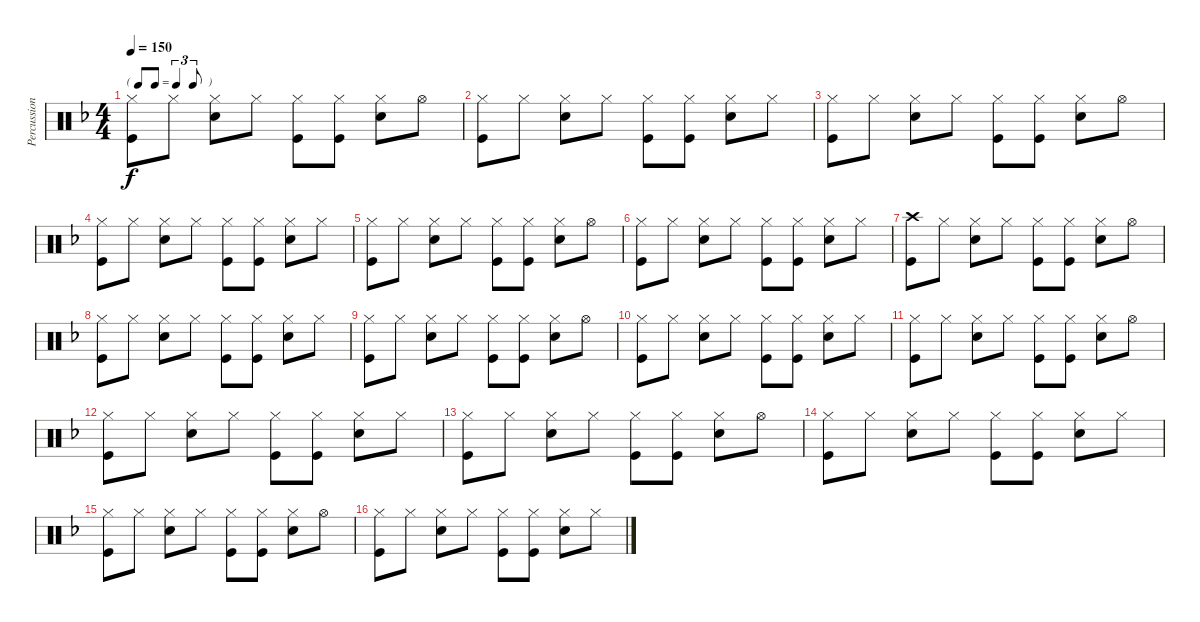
\track ("Percussion" "Percussion") {instrument percussion}
\staff {score}
\articulation defaults
\ts (4 4)
\tf triplet8th
\tempo 150
\clef neutral
\ks f
("Hi-Hat (closed)" "Kick (hit)").8{dy f} "Hi-Hat (closed)".8 ("Hi-Hat (closed)" "Snare (hit) 2").8 "Hi-Hat (closed)".8 ("Hi-Hat (closed)" "Kick (hit)").8 ("Hi-Hat (closed)" "Kick (hit)").8 ("Hi-Hat (closed)" "Snare (hit) 2").8 "Hi-Hat (open)".8 |
("Hi-Hat (closed)" "Kick (hit)").8 "Hi-Hat (closed)".8 ("Hi-Hat (closed)" "Snare (hit) 2").8 "Hi-Hat (closed)".8 ("Hi-Hat (closed)" "Kick (hit)").8 ("Hi-Hat (closed)" "Kick (hit)").8 ("Hi-Hat (closed)" "Snare (hit) 2").8 "Hi-Hat (closed)".8 |
("Hi-Hat (closed)" "Kick (hit)").8 "Hi-Hat (closed)".8 ("Hi-Hat (closed)" "Snare (hit) 2").8 "Hi-Hat (closed)".8 ("Hi-Hat (closed)" "Kick (hit)").8 ("Hi-Hat (closed)" "Kick (hit)").8 ("Hi-Hat (closed)" "Snare (hit) 2").8 "Hi-Hat (open)".8 |
("Hi-Hat (closed)" "Kick (hit)").8 "Hi-Hat (closed)".8 ("Hi-Hat (closed)" "Snare (hit) 2").8 "Hi-Hat (closed)".8 ("Hi-Hat (closed)" "Kick (hit)").8 ("Hi-Hat (closed)" "Kick (hit)").8 ("Hi-Hat (closed)" "Snare (hit) 2").8 "Hi-Hat (closed)".8 |
("Hi-Hat (closed)" "Kick (hit)").8 "Hi-Hat (closed)".8 ("Hi-Hat (closed)" "Snare (hit) 2").8 "Hi-Hat (closed)".8 ("Hi-Hat (closed)" "Kick (hit)").8 ("Hi-Hat (closed)" "Kick (hit)").8 ("Hi-Hat (closed)" "Snare (hit) 2").8 "Hi-Hat (open)".8 |
("Hi-Hat (closed)" "Kick (hit)").8 "Hi-Hat (closed)".8 ("Hi-Hat (closed)" "Snare (hit) 2").8 "Hi-Hat (closed)".8 ("Hi-Hat (closed)" "Kick (hit)").8 ("Hi-Hat (closed)" "Kick (hit)").8 ("Hi-Hat (closed)" "Snare (hit) 2").8 "Hi-Hat (closed)".8 |
("Crash high (hit)" "Kick (hit)").8 "Hi-Hat (closed)".8 ("Hi-Hat (closed)" "Snare (hit) 2").8 "Hi-Hat (closed)".8 ("Hi-Hat (closed)" "Kick (hit)").8 ("Hi-Hat (closed)" "Kick (hit)").8 ("Hi-Hat (closed)" "Snare (hit) 2").8 "Hi-Hat (open)".8 |
("Hi-Hat (closed)" "Kick (hit)").8 "Hi-Hat (closed)".8 ("Hi-Hat (closed)" "Snare (hit) 2").8 "Hi-Hat (closed)".8 ("Hi-Hat (closed)" "Kick (hit)").8 ("Hi-Hat (closed)" "Kick (hit)").8 ("Hi-Hat (closed)" "Snare (hit) 2").8 "Hi-Hat (closed)".8 |
("Hi-Hat (closed)" "Kick (hit)").8 "Hi-Hat (closed)".8 ("Hi-Hat (closed)" "Snare (hit) 2").8 "Hi-Hat (closed)".8 ("Hi-Hat (closed)" "Kick (hit)").8 ("Hi-Hat (closed)" "Kick (hit)").8 ("Hi-Hat (closed)" "Snare (hit) 2").8 "Hi-Hat (open)".8 |
("Hi-Hat (closed)" "Kick (hit)").8 "Hi-Hat (closed)".8 ("Hi-Hat (closed)" "Snare (hit) 2").8 "Hi-Hat (closed)".8 ("Hi-Hat (closed)" "Kick (hit)").8 ("Hi-Hat (closed)" "Kick (hit)").8 ("Hi-Hat (closed)" "Snare (hit) 2").8 "Hi-Hat (closed)".8 |
("Hi-Hat (closed)" "Kick (hit)").8 "Hi-Hat (closed)".8 ("Hi-Hat (closed)" "Snare (hit) 2").8 "Hi-Hat (closed)".8 ("Hi-Hat (closed)" "Kick (hit)").8 ("Hi-Hat (closed)" "Kick (hit)").8 ("Hi-Hat (closed)" "Snare (hit) 2").8 "Hi-Hat (open)".8 |
("Hi-Hat (closed)" "Kick (hit)").8 "Hi-Hat (closed)".8 ("Hi-Hat (closed)" "Snare (hit) 2").8 "Hi-Hat (closed)".8 ("Hi-Hat (closed)" "Kick (hit)").8 ("Hi-Hat (closed)" "Kick (hit)").8 ("Hi-Hat (closed)" "Snare (hit) 2").8 "Hi-Hat (closed)".8 |
("Hi-Hat (closed)" "Kick (hit)").8 "Hi-Hat (closed)".8 ("Hi-Hat (closed)" "Snare (hit) 2").8 "Hi-Hat (closed)".8 ("Hi-Hat (closed)" "Kick (hit)").8 ("Hi-Hat (closed)" "Kick (hit)").8 ("Hi-Hat (closed)" "Snare (hit) 2").8 "Hi-Hat (open)".8 |
("Hi-Hat (closed)" "Kick (hit)").8 "Hi-Hat (closed)".8 ("Hi-Hat (closed)" "Snare (hit) 2").8 "Hi-Hat (closed)".8 ("Hi-Hat (closed)" "Kick (hit)").8 ("Hi-Hat (closed)" "Kick (hit)").8 ("Hi-Hat (closed)" "Snare (hit) 2").8 "Hi-Hat (closed)".8 |
("Hi-Hat (closed)" "Kick (hit)").8 "Hi-Hat (closed)".8 ("Hi-Hat (closed)" "Snare (hit) 2").8 "Hi-Hat (closed)".8 ("Hi-Hat (closed)" "Kick (hit)").8 ("Hi-Hat (closed)" "Kick (hit)").8 ("Hi-Hat (closed)" "Snare (hit) 2").8 "Hi-Hat (open)".8 |
("Hi-Hat (closed)" "Kick (hit)").8 "Hi-Hat (closed)".8 ("Hi-Hat (closed)" "Snare (hit) 2").8 "Hi-Hat (closed)".8 ("Hi-Hat (closed)" "Kick (hit)").8 ("Hi-Hat (closed)" "Kick (hit)").8 ("Hi-Hat (closed)" "Snare (hit) 2").8 "Hi-Hat (closed)".8
